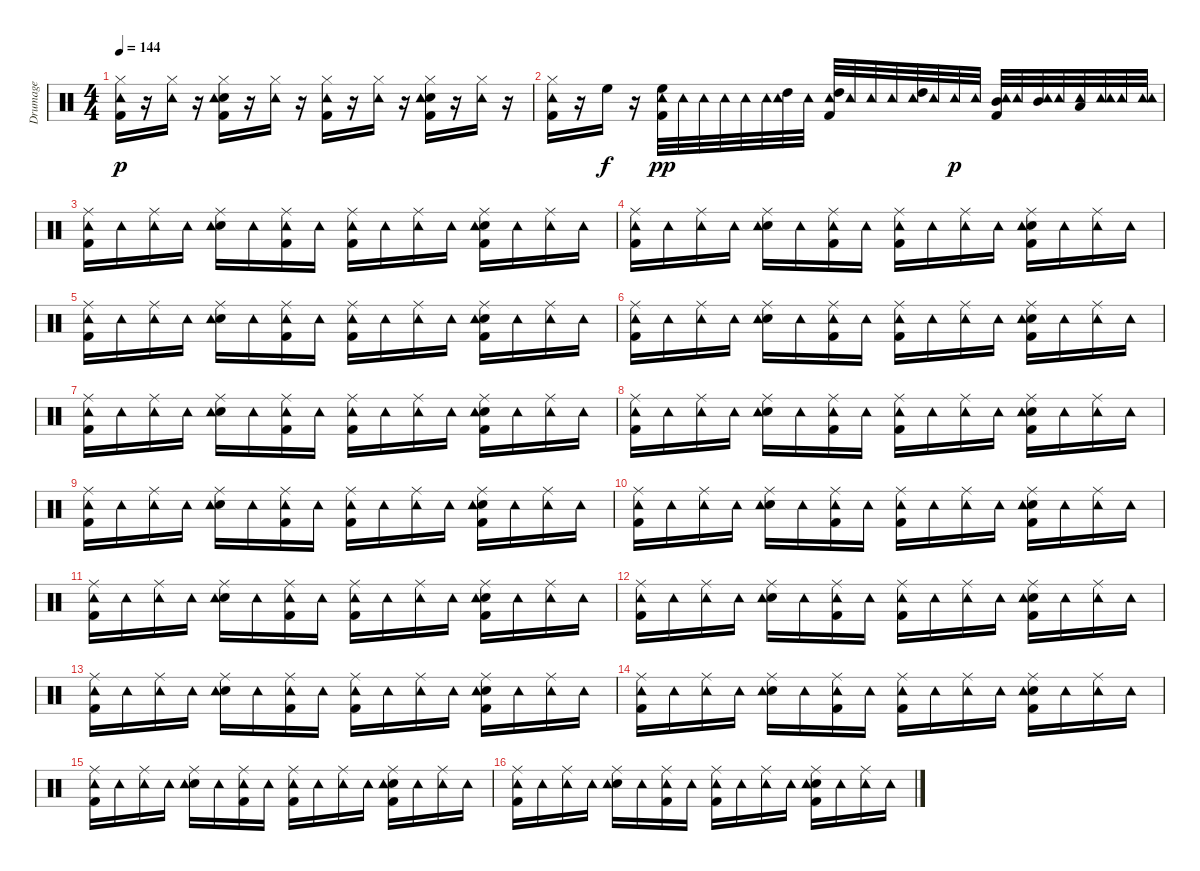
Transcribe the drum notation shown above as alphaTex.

\track ("Drumage" "Drumage") {instrument percussion}
\staff {score}
\articulation defaults
\ts (4 4)
\tempo 144
\clef neutral
\ks c
("Hi-Hat (closed)" "Kick (hit) 2" "Tambourine (hit)").16{dy p} r.16 ("Hi-Hat (closed)" "Tambourine (hit)").16 r.16 ("Hi-Hat (closed)" "Electric Snare (hit)" "Kick (hit) 2" "Tambourine (hit)").16 r.16 ("Hi-Hat (closed)" "Tambourine (hit)").16 r.16 ("Hi-Hat (closed)" "Kick (hit) 2" "Tambourine (hit)").16 r.16 ("Hi-Hat (closed)" "Tambourine (hit)").16 r.16 ("Hi-Hat (closed)" "Electric Snare (hit)" "Kick (hit) 2" "Tambourine (hit)").16 r.16 ("Hi-Hat (closed)" "Tambourine (hit)").16 r.16 |
("Hi-Hat (closed)" "Kick (hit) 2" "Tambourine (hit)").16 r.16 "High Floor Tom (hit)".16{dy f} r.16 ("High Floor Tom (hit)" "Kick (hit) 2" "Tambourine (hit)").32{dy pp} "Tambourine (hit)".32 "Tambourine (hit)".32 "Tambourine (hit)".32 "Tambourine (hit)".32 "Tambourine (hit)".32 ("High Tom (hit)" "Tambourine (hit)").32 "Tambourine (hit)".32 ("High Tom (hit)" "Kick (hit) 2" "Tambourine (hit)").32 "Tambourine (hit)".32 "Tambourine (hit)".32 "Tambourine (hit)".32 ("High Tom (hit)" "Tambourine (hit)").32 "Tambourine (hit)".32 "Tambourine (hit)".32{dy p} "Tambourine (hit)".32 ("Mid Tom (hit)" "Kick (hit) 2" "Tambourine (hit)").32 "Tambourine (hit)".32 ("Mid Tom (hit)" "Tambourine (hit)").32 "Tambourine (hit)".32 ("Low Tom (hit)" "Tambourine (hit)").32 ("Tambourine (hit)" "Tambourine (hit)").32 "Tambourine (hit)".32 ("Tambourine (hit)" "Tambourine (hit)").32 |
("Ride (middle)" "Kick (hit) 2" "Tambourine (hit)").16 "Tambourine (hit)".16 ("Ride (middle)" "Tambourine (hit)").16 "Tambourine (hit)".16 ("Ride (middle)" "Electric Snare (hit)" "Tambourine (hit)").16 "Tambourine (hit)".16 ("Ride (middle)" "Kick (hit) 2" "Tambourine (hit)").16 "Tambourine (hit)".16 ("Ride (middle)" "Kick (hit) 2" "Tambourine (hit)").16 "Tambourine (hit)".16 ("Ride (middle)" "Tambourine (hit)").16 "Tambourine (hit)".16 ("Ride (middle)" "Electric Snare (hit)" "Kick (hit) 2" "Tambourine (hit)").16 "Tambourine (hit)".16 ("Ride (middle)" "Tambourine (hit)").16 "Tambourine (hit)".16 |
("Ride (middle)" "Kick (hit) 2" "Tambourine (hit)").16 "Tambourine (hit)".16 ("Ride (middle)" "Tambourine (hit)").16 "Tambourine (hit)".16 ("Ride (middle)" "Electric Snare (hit)" "Tambourine (hit)").16 "Tambourine (hit)".16 ("Ride (middle)" "Kick (hit) 2" "Tambourine (hit)").16 "Tambourine (hit)".16 ("Ride (middle)" "Kick (hit) 2" "Tambourine (hit)").16 "Tambourine (hit)".16 ("Ride (middle)" "Tambourine (hit)").16 "Tambourine (hit)".16 ("Ride (middle)" "Electric Snare (hit)" "Kick (hit) 2" "Tambourine (hit)").16 "Tambourine (hit)".16 ("Ride (middle)" "Tambourine (hit)").16 "Tambourine (hit)".16 |
("Ride (middle)" "Kick (hit) 2" "Tambourine (hit)").16 "Tambourine (hit)".16 ("Ride (middle)" "Tambourine (hit)").16 "Tambourine (hit)".16 ("Ride (middle)" "Electric Snare (hit)" "Tambourine (hit)").16 "Tambourine (hit)".16 ("Ride (middle)" "Kick (hit) 2" "Tambourine (hit)").16 "Tambourine (hit)".16 ("Ride (middle)" "Kick (hit) 2" "Tambourine (hit)").16 "Tambourine (hit)".16 ("Ride (middle)" "Tambourine (hit)").16 "Tambourine (hit)".16 ("Ride (middle)" "Electric Snare (hit)" "Kick (hit) 2" "Tambourine (hit)").16 "Tambourine (hit)".16 ("Ride (middle)" "Tambourine (hit)").16 "Tambourine (hit)".16 |
("Ride (middle)" "Kick (hit) 2" "Tambourine (hit)").16 "Tambourine (hit)".16 ("Ride (middle)" "Tambourine (hit)").16 "Tambourine (hit)".16 ("Ride (middle)" "Electric Snare (hit)" "Tambourine (hit)").16 "Tambourine (hit)".16 ("Ride (middle)" "Kick (hit) 2" "Tambourine (hit)").16 "Tambourine (hit)".16 ("Ride (middle)" "Kick (hit) 2" "Tambourine (hit)").16 "Tambourine (hit)".16 ("Ride (middle)" "Tambourine (hit)").16 "Tambourine (hit)".16 ("Ride (middle)" "Electric Snare (hit)" "Kick (hit) 2" "Tambourine (hit)").16 "Tambourine (hit)".16 ("Ride (middle)" "Tambourine (hit)").16 "Tambourine (hit)".16 |
("Ride (middle)" "Kick (hit) 2" "Tambourine (hit)").16 "Tambourine (hit)".16 ("Ride (middle)" "Tambourine (hit)").16 "Tambourine (hit)".16 ("Ride (middle)" "Electric Snare (hit)" "Tambourine (hit)").16 "Tambourine (hit)".16 ("Ride (middle)" "Kick (hit) 2" "Tambourine (hit)").16 "Tambourine (hit)".16 ("Ride (middle)" "Kick (hit) 2" "Tambourine (hit)").16 "Tambourine (hit)".16 ("Ride (middle)" "Tambourine (hit)").16 "Tambourine (hit)".16 ("Ride (middle)" "Electric Snare (hit)" "Kick (hit) 2" "Tambourine (hit)").16 "Tambourine (hit)".16 ("Ride (middle)" "Tambourine (hit)").16 "Tambourine (hit)".16 |
("Ride (middle)" "Kick (hit) 2" "Tambourine (hit)").16 "Tambourine (hit)".16 ("Ride (middle)" "Tambourine (hit)").16 "Tambourine (hit)".16 ("Ride (middle)" "Electric Snare (hit)" "Tambourine (hit)").16 "Tambourine (hit)".16 ("Ride (middle)" "Kick (hit) 2" "Tambourine (hit)").16 "Tambourine (hit)".16 ("Ride (middle)" "Kick (hit) 2" "Tambourine (hit)").16 "Tambourine (hit)".16 ("Ride (middle)" "Tambourine (hit)").16 "Tambourine (hit)".16 ("Ride (middle)" "Electric Snare (hit)" "Kick (hit) 2" "Tambourine (hit)").16 "Tambourine (hit)".16 ("Ride (middle)" "Tambourine (hit)").16 "Tambourine (hit)".16 |
("Ride (middle)" "Kick (hit) 2" "Tambourine (hit)").16 "Tambourine (hit)".16 ("Ride (middle)" "Tambourine (hit)").16 "Tambourine (hit)".16 ("Ride (middle)" "Electric Snare (hit)" "Tambourine (hit)").16 "Tambourine (hit)".16 ("Ride (middle)" "Kick (hit) 2" "Tambourine (hit)").16 "Tambourine (hit)".16 ("Ride (middle)" "Kick (hit) 2" "Tambourine (hit)").16 "Tambourine (hit)".16 ("Ride (middle)" "Tambourine (hit)").16 "Tambourine (hit)".16 ("Ride (middle)" "Electric Snare (hit)" "Kick (hit) 2" "Tambourine (hit)").16 "Tambourine (hit)".16 ("Ride (middle)" "Tambourine (hit)").16 "Tambourine (hit)".16 |
("Ride (middle)" "Kick (hit) 2" "Tambourine (hit)").16 "Tambourine (hit)".16 ("Ride (middle)" "Tambourine (hit)").16 "Tambourine (hit)".16 ("Ride (middle)" "Electric Snare (hit)" "Tambourine (hit)").16 "Tambourine (hit)".16 ("Ride (middle)" "Kick (hit) 2" "Tambourine (hit)").16 "Tambourine (hit)".16 ("Ride (middle)" "Kick (hit) 2" "Tambourine (hit)").16 "Tambourine (hit)".16 ("Ride (middle)" "Tambourine (hit)").16 "Tambourine (hit)".16 ("Ride (middle)" "Electric Snare (hit)" "Kick (hit) 2" "Tambourine (hit)").16 "Tambourine (hit)".16 ("Ride (middle)" "Tambourine (hit)").16 "Tambourine (hit)".16 |
("Ride (middle)" "Kick (hit) 2" "Tambourine (hit)").16 "Tambourine (hit)".16 ("Ride (middle)" "Tambourine (hit)").16 "Tambourine (hit)".16 ("Ride (middle)" "Electric Snare (hit)" "Tambourine (hit)").16 "Tambourine (hit)".16 ("Ride (middle)" "Kick (hit) 2" "Tambourine (hit)").16 "Tambourine (hit)".16 ("Ride (middle)" "Kick (hit) 2" "Tambourine (hit)").16 "Tambourine (hit)".16 ("Ride (middle)" "Tambourine (hit)").16 "Tambourine (hit)".16 ("Ride (middle)" "Electric Snare (hit)" "Kick (hit) 2" "Tambourine (hit)").16 "Tambourine (hit)".16 ("Ride (middle)" "Tambourine (hit)").16 "Tambourine (hit)".16 |
("Ride (middle)" "Kick (hit) 2" "Tambourine (hit)").16 "Tambourine (hit)".16 ("Ride (middle)" "Tambourine (hit)").16 "Tambourine (hit)".16 ("Ride (middle)" "Electric Snare (hit)" "Tambourine (hit)").16 "Tambourine (hit)".16 ("Ride (middle)" "Kick (hit) 2" "Tambourine (hit)").16 "Tambourine (hit)".16 ("Ride (middle)" "Kick (hit) 2" "Tambourine (hit)").16 "Tambourine (hit)".16 ("Ride (middle)" "Tambourine (hit)").16 "Tambourine (hit)".16 ("Ride (middle)" "Electric Snare (hit)" "Kick (hit) 2" "Tambourine (hit)").16 "Tambourine (hit)".16 ("Ride (middle)" "Tambourine (hit)").16 "Tambourine (hit)".16 |
("Ride (middle)" "Kick (hit) 2" "Tambourine (hit)").16 "Tambourine (hit)".16 ("Ride (middle)" "Tambourine (hit)").16 "Tambourine (hit)".16 ("Ride (middle)" "Electric Snare (hit)" "Tambourine (hit)").16 "Tambourine (hit)".16 ("Ride (middle)" "Kick (hit) 2" "Tambourine (hit)").16 "Tambourine (hit)".16 ("Ride (middle)" "Kick (hit) 2" "Tambourine (hit)").16 "Tambourine (hit)".16 ("Ride (middle)" "Tambourine (hit)").16 "Tambourine (hit)".16 ("Ride (middle)" "Electric Snare (hit)" "Kick (hit) 2" "Tambourine (hit)").16 "Tambourine (hit)".16 ("Ride (middle)" "Tambourine (hit)").16 "Tambourine (hit)".16 |
("Ride (middle)" "Kick (hit) 2" "Tambourine (hit)").16 "Tambourine (hit)".16 ("Ride (middle)" "Tambourine (hit)").16 "Tambourine (hit)".16 ("Ride (middle)" "Electric Snare (hit)" "Tambourine (hit)").16 "Tambourine (hit)".16 ("Ride (middle)" "Kick (hit) 2" "Tambourine (hit)").16 "Tambourine (hit)".16 ("Ride (middle)" "Kick (hit) 2" "Tambourine (hit)").16 "Tambourine (hit)".16 ("Ride (middle)" "Tambourine (hit)").16 "Tambourine (hit)".16 ("Ride (middle)" "Electric Snare (hit)" "Kick (hit) 2" "Tambourine (hit)").16 "Tambourine (hit)".16 ("Ride (middle)" "Tambourine (hit)").16 "Tambourine (hit)".16 |
("Ride (middle)" "Kick (hit) 2" "Tambourine (hit)").16 "Tambourine (hit)".16 ("Ride (middle)" "Tambourine (hit)").16 "Tambourine (hit)".16 ("Ride (middle)" "Electric Snare (hit)" "Tambourine (hit)").16 "Tambourine (hit)".16 ("Ride (middle)" "Kick (hit) 2" "Tambourine (hit)").16 "Tambourine (hit)".16 ("Ride (middle)" "Kick (hit) 2" "Tambourine (hit)").16 "Tambourine (hit)".16 ("Ride (middle)" "Tambourine (hit)").16 "Tambourine (hit)".16 ("Ride (middle)" "Electric Snare (hit)" "Kick (hit) 2" "Tambourine (hit)").16 "Tambourine (hit)".16 ("Ride (middle)" "Tambourine (hit)").16 "Tambourine (hit)".16 |
("Ride (middle)" "Kick (hit) 2" "Tambourine (hit)").16 "Tambourine (hit)".16 ("Ride (middle)" "Tambourine (hit)").16 "Tambourine (hit)".16 ("Ride (middle)" "Electric Snare (hit)" "Tambourine (hit)").16 "Tambourine (hit)".16 ("Ride (middle)" "Kick (hit) 2" "Tambourine (hit)").16 "Tambourine (hit)".16 ("Ride (middle)" "Kick (hit) 2" "Tambourine (hit)").16 "Tambourine (hit)".16 ("Ride (middle)" "Tambourine (hit)").16 "Tambourine (hit)".16 ("Ride (middle)" "Electric Snare (hit)" "Kick (hit) 2" "Tambourine (hit)").16 "Tambourine (hit)".16 ("Ride (middle)" "Tambourine (hit)").16 "Tambourine (hit)".16
